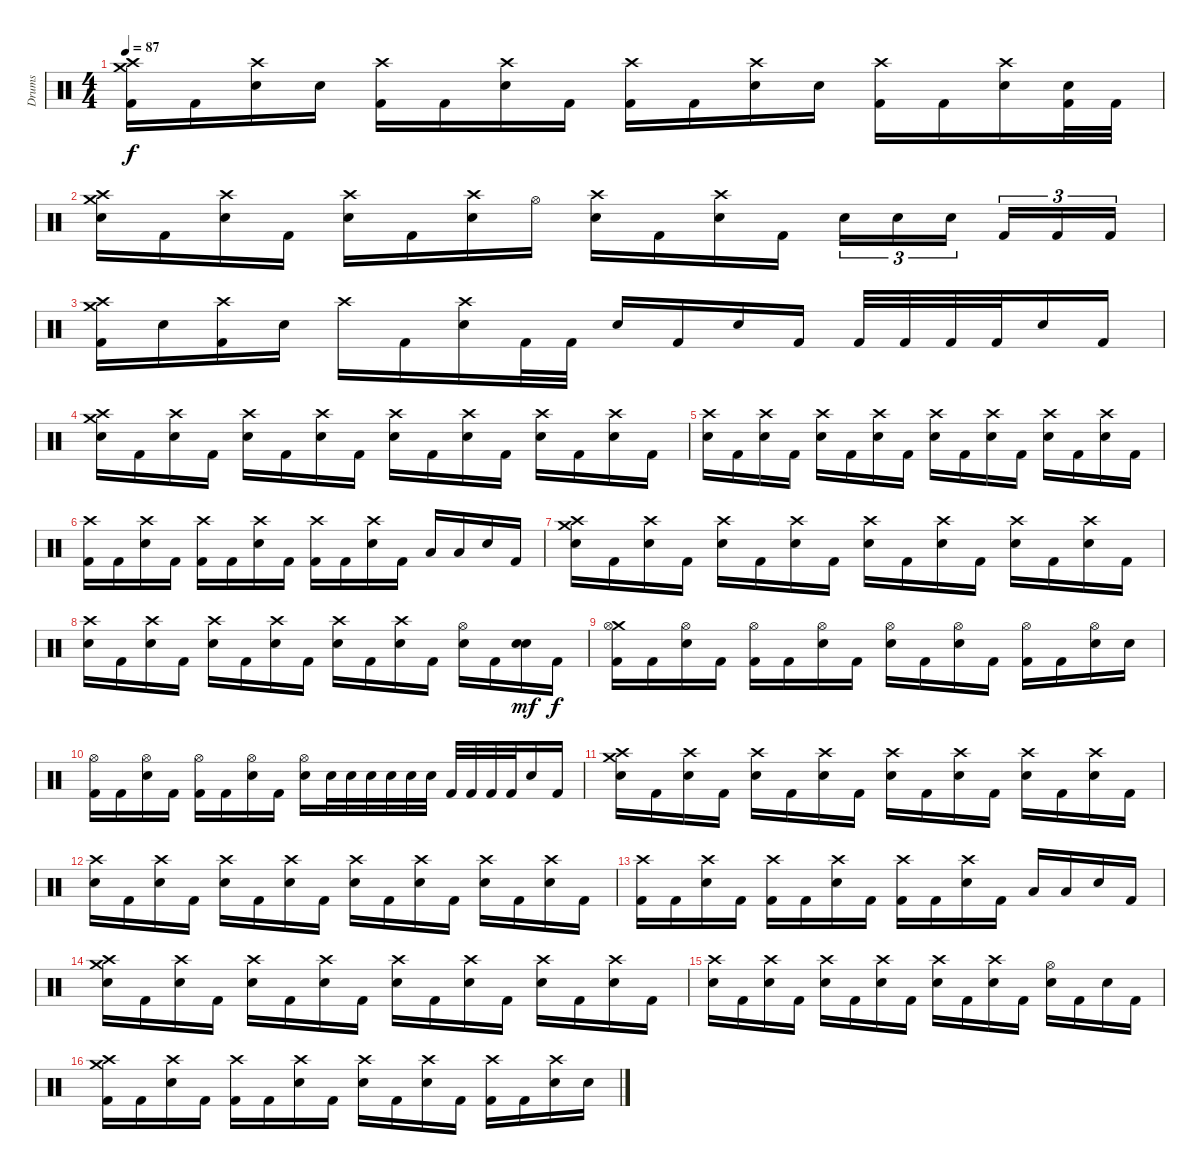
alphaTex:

\track ("Drums" "Drums") {instrument percussion}
\staff {score}
\articulation defaults
\ts (4 4)
\tempo 87
\clef neutral
\ks c
("Crash medium (hit)" "Crash high (hit)" "Kick (hit) 2").16{dy f} "Kick (hit) 2".16 ("Crash high (hit)" "Electric Snare (hit)").16 "Snare (hit)".16 ("Crash high (hit)" "Kick (hit) 2").16 "Kick (hit) 2".16 ("Crash high (hit)" "Electric Snare (hit)").16 "Kick (hit) 2".16 ("Crash high (hit)" "Kick (hit) 2").16 "Kick (hit) 2".16 ("Crash high (hit)" "Electric Snare (hit)").16 "Snare (hit)".16 ("Crash high (hit)" "Kick (hit) 2").16 "Kick (hit) 2".16 ("Crash high (hit)" "Electric Snare (hit)").16 ("Snare (hit)" "Kick (hit) 2").32 "Kick (hit) 2".32 |
("Crash medium (hit)" "Crash high (hit)" "Electric Snare (hit)").16 "Kick (hit) 2".16 ("Crash high (hit)" "Electric Snare (hit)").16 "Kick (hit) 2".16 ("Crash high (hit)" "Electric Snare (hit)").16 "Kick (hit) 2".16 ("Crash high (hit)" "Electric Snare (hit)").16 "Hi-Hat (open)".16 ("Crash high (hit)" "Snare (hit)").16 "Kick (hit) 2".16 ("Crash high (hit)" "Electric Snare (hit)").16 "Kick (hit) 2".16 "Electric Snare (hit)".16{tu (3 2)} "Electric Snare (hit)".16{tu (3 2)} "Electric Snare (hit)".16{tu (3 2) beam splitsecondary} "Kick (hit) 2".16{tu (3 2)} "Kick (hit) 2".16{tu (3 2)} "Kick (hit) 2".16{tu (3 2)} |
("Crash medium (hit)" "Crash high (hit)" "Kick (hit) 2").16 "Snare (hit)".16 ("Crash high (hit)" "Kick (hit) 2").16 "Electric Snare (hit)".16 "Crash high (hit)".16 "Kick (hit) 2".16 ("Crash high (hit)" "Electric Snare (hit)").16 "Kick (hit) 2".32 "Kick (hit) 2".32 "Electric Snare (hit)".16 "Kick (hit) 2".16 "Electric Snare (hit)".16 "Kick (hit) 2".16 "Kick (hit) 2".32 "Kick (hit) 2".32 "Kick (hit) 2".32 "Kick (hit) 2".32 "Electric Snare (hit)".16 "Kick (hit) 2".16 |
("Crash medium (hit)" "Crash high (hit)" "Electric Snare (hit)").16 "Kick (hit) 2".16 ("Crash high (hit)" "Electric Snare (hit)").16 "Kick (hit) 2".16 ("Crash high (hit)" "Electric Snare (hit)").16 "Kick (hit) 2".16 ("Crash high (hit)" "Electric Snare (hit)").16 "Kick (hit) 2".16 ("Crash high (hit)" "Electric Snare (hit)").16 "Kick (hit) 2".16 ("Crash high (hit)" "Electric Snare (hit)").16 "Kick (hit) 2".16 ("Crash high (hit)" "Electric Snare (hit)").16 "Kick (hit) 2".16 ("Crash high (hit)" "Electric Snare (hit)").16 "Kick (hit) 2".16 |
("Crash high (hit)" "Electric Snare (hit)").16 "Kick (hit) 2".16 ("Crash high (hit)" "Electric Snare (hit)").16 "Kick (hit) 2".16 ("Crash high (hit)" "Electric Snare (hit)").16 "Kick (hit) 2".16 ("Crash high (hit)" "Electric Snare (hit)").16 "Kick (hit) 2".16 ("Crash high (hit)" "Electric Snare (hit)").16 "Kick (hit) 2".16 ("Crash high (hit)" "Electric Snare (hit)").16 "Kick (hit) 2".16 ("Crash high (hit)" "Electric Snare (hit)").16 "Kick (hit) 2".16 ("Crash high (hit)" "Electric Snare (hit)").16 "Kick (hit) 2".16 |
("Crash high (hit)" "Kick (hit) 2").16 "Kick (hit) 2".16 ("Crash high (hit)" "Electric Snare (hit)").16 "Kick (hit) 2".16 ("Crash high (hit)" "Kick (hit) 2").16 "Kick (hit) 2".16 ("Crash high (hit)" "Electric Snare (hit)").16 "Kick (hit) 2".16 ("Crash high (hit)" "Kick (hit) 2").16 "Kick (hit) 2".16 ("Crash high (hit)" "Electric Snare (hit)").16 "Kick (hit) 2".16 "Low Floor Tom (hit)".16 "Low Floor Tom (hit)".16 "Electric Snare (hit)".16 "Kick (hit) 2".16 |
("Crash medium (hit)" "Crash high (hit)" "Electric Snare (hit)").16 "Kick (hit) 2".16 ("Crash high (hit)" "Electric Snare (hit)").16 "Kick (hit) 2".16 ("Crash high (hit)" "Electric Snare (hit)").16 "Kick (hit) 2".16 ("Crash high (hit)" "Electric Snare (hit)").16 "Kick (hit) 2".16 ("Crash high (hit)" "Electric Snare (hit)").16 "Kick (hit) 2".16 ("Crash high (hit)" "Electric Snare (hit)").16 "Kick (hit) 2".16 ("Crash high (hit)" "Electric Snare (hit)").16 "Kick (hit) 2".16 ("Crash high (hit)" "Electric Snare (hit)").16 "Kick (hit) 2".16 |
("Crash high (hit)" "Electric Snare (hit)").16 "Kick (hit) 2".16 ("Crash high (hit)" "Electric Snare (hit)").16 "Kick (hit) 2".16 ("Crash high (hit)" "Electric Snare (hit)").16 "Kick (hit) 2".16 ("Crash high (hit)" "Electric Snare (hit)").16 "Kick (hit) 2".16 ("Crash high (hit)" "Electric Snare (hit)").16 "Kick (hit) 2".16 ("Crash high (hit)" "Electric Snare (hit)").16 "Kick (hit) 2".16 ("Hi-Hat (open)" "Electric Snare (hit)").16 "Kick (hit) 2".16 ("Snare (hit) 2" "Electric Snare (hit)").16{dy mf} "Kick (hit) 2".16{dy f} |
("Crash medium (hit)" "Hi-Hat (open)" "Kick (hit) 2").16 "Kick (hit) 2".16 ("Hi-Hat (open)" "Electric Snare (hit)").16 "Kick (hit) 2".16 ("Hi-Hat (open)" "Kick (hit) 2").16 "Kick (hit) 2".16 ("Hi-Hat (open)" "Electric Snare (hit)").16 "Kick (hit) 2".16 ("Hi-Hat (open)" "Snare (hit)").16 "Kick (hit) 2".16 ("Hi-Hat (open)" "Electric Snare (hit)").16 "Kick (hit) 2".16 ("Hi-Hat (open)" "Kick (hit) 2").16 "Kick (hit) 2".16 ("Hi-Hat (open)" "Electric Snare (hit)").16 "Snare (hit)".16 |
("Hi-Hat (open)" "Kick (hit) 2").16 "Kick (hit) 2".16 ("Hi-Hat (open)" "Electric Snare (hit)").16 "Kick (hit) 2".16 ("Hi-Hat (open)" "Kick (hit) 2").16 "Kick (hit) 2".16 ("Hi-Hat (open)" "Electric Snare (hit)").16 "Kick (hit) 2".16 ("Hi-Hat (open)" "Snare (hit)").16 "Electric Snare (hit)".32 "Electric Snare (hit)".32 "Electric Snare (hit)".32 "Electric Snare (hit)".32 "Electric Snare (hit)".32 "Electric Snare (hit)".32 "Kick (hit) 2".32 "Kick (hit) 2".32 "Kick (hit) 2".32 "Kick (hit) 2".32 "Electric Snare (hit)".16 "Kick (hit) 2".16 |
("Crash medium (hit)" "Crash high (hit)" "Electric Snare (hit)").16 "Kick (hit) 2".16 ("Crash high (hit)" "Electric Snare (hit)").16 "Kick (hit) 2".16 ("Crash high (hit)" "Electric Snare (hit)").16 "Kick (hit) 2".16 ("Crash high (hit)" "Electric Snare (hit)").16 "Kick (hit) 2".16 ("Crash high (hit)" "Electric Snare (hit)").16 "Kick (hit) 2".16 ("Crash high (hit)" "Electric Snare (hit)").16 "Kick (hit) 2".16 ("Crash high (hit)" "Electric Snare (hit)").16 "Kick (hit) 2".16 ("Crash high (hit)" "Electric Snare (hit)").16 "Kick (hit) 2".16 |
("Crash high (hit)" "Electric Snare (hit)").16 "Kick (hit) 2".16 ("Crash high (hit)" "Electric Snare (hit)").16 "Kick (hit) 2".16 ("Crash high (hit)" "Electric Snare (hit)").16 "Kick (hit) 2".16 ("Crash high (hit)" "Electric Snare (hit)").16 "Kick (hit) 2".16 ("Crash high (hit)" "Electric Snare (hit)").16 "Kick (hit) 2".16 ("Crash high (hit)" "Electric Snare (hit)").16 "Kick (hit) 2".16 ("Crash high (hit)" "Electric Snare (hit)").16 "Kick (hit) 2".16 ("Crash high (hit)" "Electric Snare (hit)").16 "Kick (hit) 2".16 |
("Crash high (hit)" "Kick (hit) 2").16 "Kick (hit) 2".16 ("Crash high (hit)" "Electric Snare (hit)").16 "Kick (hit) 2".16 ("Crash high (hit)" "Kick (hit) 2").16 "Kick (hit) 2".16 ("Crash high (hit)" "Electric Snare (hit)").16 "Kick (hit) 2".16 ("Crash high (hit)" "Kick (hit) 2").16 "Kick (hit) 2".16 ("Crash high (hit)" "Electric Snare (hit)").16 "Kick (hit) 2".16 "Low Floor Tom (hit)".16 "Low Floor Tom (hit)".16 "Electric Snare (hit)".16 "Kick (hit) 2".16 |
("Crash medium (hit)" "Crash high (hit)" "Electric Snare (hit)").16 "Kick (hit) 2".16 ("Crash high (hit)" "Electric Snare (hit)").16 "Kick (hit) 2".16 ("Crash high (hit)" "Electric Snare (hit)").16 "Kick (hit) 2".16 ("Crash high (hit)" "Electric Snare (hit)").16 "Kick (hit) 2".16 ("Crash high (hit)" "Electric Snare (hit)").16 "Kick (hit) 2".16 ("Crash high (hit)" "Electric Snare (hit)").16 "Kick (hit) 2".16 ("Crash high (hit)" "Electric Snare (hit)").16 "Kick (hit) 2".16 ("Crash high (hit)" "Electric Snare (hit)").16 "Kick (hit) 2".16 |
("Crash high (hit)" "Electric Snare (hit)").16 "Kick (hit) 2".16 ("Crash high (hit)" "Electric Snare (hit)").16 "Kick (hit) 2".16 ("Crash high (hit)" "Electric Snare (hit)").16 "Kick (hit) 2".16 ("Crash high (hit)" "Electric Snare (hit)").16 "Kick (hit) 2".16 ("Crash high (hit)" "Electric Snare (hit)").16 "Kick (hit) 2".16 ("Crash high (hit)" "Electric Snare (hit)").16 "Kick (hit) 2".16 ("Hi-Hat (open)" "Snare (hit)").16 "Kick (hit) 2".16 "Electric Snare (hit)".16 "Kick (hit) 2".16 |
("Crash medium (hit)" "Crash high (hit)" "Kick (hit) 2").16 "Kick (hit) 2".16 ("Crash high (hit)" "Electric Snare (hit)").16 "Kick (hit) 2".16 ("Crash high (hit)" "Kick (hit) 2").16 "Kick (hit) 2".16 ("Crash high (hit)" "Electric Snare (hit)").16 "Kick (hit) 2".16 ("Crash high (hit)" "Snare (hit)").16 "Kick (hit) 2".16 ("Crash high (hit)" "Electric Snare (hit)").16 "Kick (hit) 2".16 ("Crash high (hit)" "Kick (hit) 2").16 "Kick (hit) 2".16 ("Crash high (hit)" "Electric Snare (hit)").16 "Snare (hit)".16
